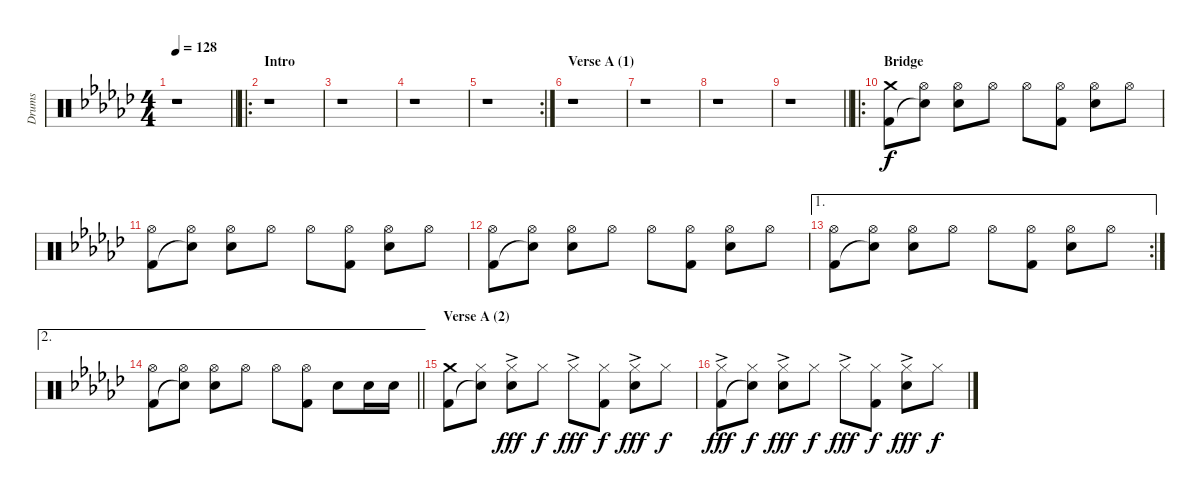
\track ("Drums" "Drums") {instrument percussion}
\staff {score}
\articulation defaults
\ts (4 4)
\tempo 128
\clef neutral
\barLineRight lightlight
\ks gb
r.1{dy f} |
\ro
\section ("" "Intro")
r.1 |
r.1 |
r.1 |
\rc 2
r.1 |
\section ("" "Verse A (1)")
r.1 |
r.1 |
r.1 |
\barLineRight lightlight
r.1 |
\ro
\section ("" "Bridge")
("Crash medium (hit)" "Kick (hit) 2").8 ("Hi-Hat (open)" "Snare (hit)"{t}).8 ("Hi-Hat (open)" "Electric Snare (hit)").8 "Hi-Hat (open)".8 "Hi-Hat (open)".8 ("Hi-Hat (open)" "Kick (hit) 2").8 ("Hi-Hat (open)" "Electric Snare (hit)").8 "Hi-Hat (open)".8 |
("Hi-Hat (open)" "Kick (hit) 2").8 ("Hi-Hat (open)" "Snare (hit)"{t}).8 ("Hi-Hat (open)" "Electric Snare (hit)").8 "Hi-Hat (open)".8 "Hi-Hat (open)".8 ("Hi-Hat (open)" "Kick (hit) 2").8 ("Hi-Hat (open)" "Electric Snare (hit)").8 "Hi-Hat (open)".8 |
("Hi-Hat (open)" "Kick (hit) 2").8 ("Hi-Hat (open)" "Snare (hit)"{t}).8 ("Hi-Hat (open)" "Electric Snare (hit)").8 "Hi-Hat (open)".8 "Hi-Hat (open)".8 ("Hi-Hat (open)" "Kick (hit) 2").8 ("Hi-Hat (open)" "Electric Snare (hit)").8 "Hi-Hat (open)".8 |
\ae 1
\rc 2
("Hi-Hat (open)" "Kick (hit) 2").8 ("Hi-Hat (open)" "Snare (hit)"{t}).8 ("Hi-Hat (open)" "Electric Snare (hit)").8 "Hi-Hat (open)".8 "Hi-Hat (open)".8 ("Hi-Hat (open)" "Kick (hit) 2").8 ("Hi-Hat (open)" "Electric Snare (hit)").8 "Hi-Hat (open)".8 |
\ae 2
\barLineRight lightlight
("Hi-Hat (open)" "Kick (hit) 2").8 ("Hi-Hat (open)" "Snare (hit)"{t}).8 ("Hi-Hat (open)" "Electric Snare (hit)").8 "Hi-Hat (open)".8 "Hi-Hat (open)".8 ("Hi-Hat (open)" "Kick (hit) 2").8 "Electric Snare (hit)".8 "Electric Snare (hit)".16 "Electric Snare (hit)".16 |
\section ("" "Verse A (2)")
("Crash medium (hit)" "Kick (hit) 2").8 ("Hi-Hat (closed)" "Snare (hit)"{t}).8 ("Hi-Hat (closed)"{ac} "Electric Snare (hit)").8{dy fff} "Hi-Hat (closed)".8{dy f} "Hi-Hat (closed)"{ac}.8{dy fff} ("Hi-Hat (closed)" "Kick (hit) 2").8{dy f} ("Hi-Hat (closed)"{ac} "Electric Snare (hit)").8{dy fff} "Hi-Hat (closed)".8{dy f} |
("Hi-Hat (closed)"{ac} "Kick (hit) 2").8{dy fff} ("Hi-Hat (closed)" "Snare (hit)"{t}).8{dy f} ("Hi-Hat (closed)"{ac} "Electric Snare (hit)").8{dy fff} "Hi-Hat (closed)".8{dy f} "Hi-Hat (closed)"{ac}.8{dy fff} ("Hi-Hat (closed)" "Kick (hit) 2").8{dy f} ("Hi-Hat (closed)"{ac} "Electric Snare (hit)").8{dy fff} "Hi-Hat (closed)".8{dy f}
